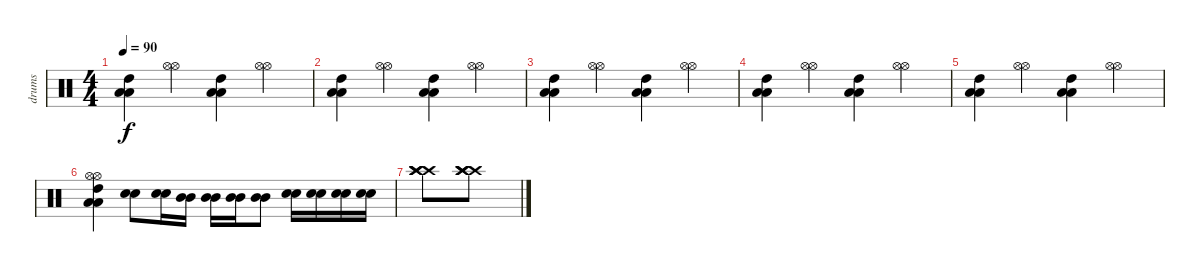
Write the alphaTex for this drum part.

\track ("drums" "drums") {instrument percussion}
\staff {score}
\articulation defaults
\ts (4 4)
\tempo 90
\clef neutral
\ks c
("High Tom (hit)" "Low Floor Tom (hit)" "Low Floor Tom (hit)").4{dy f} ("Hi-Hat (open)" "Hi-Hat (open)").4 ("High Tom (hit)" "Low Floor Tom (hit)" "Low Floor Tom (hit)").4 ("Hi-Hat (open)" "Hi-Hat (open)").4 |
("High Tom (hit)" "Low Floor Tom (hit)" "Low Floor Tom (hit)").4 ("Hi-Hat (open)" "Hi-Hat (open)").4 ("High Tom (hit)" "Low Floor Tom (hit)" "Low Floor Tom (hit)").4 ("Hi-Hat (open)" "Hi-Hat (open)").4 |
("High Tom (hit)" "Low Floor Tom (hit)" "Low Floor Tom (hit)").4 ("Hi-Hat (open)" "Hi-Hat (open)").4 ("High Tom (hit)" "Low Floor Tom (hit)" "Low Floor Tom (hit)").4 ("Hi-Hat (open)" "Hi-Hat (open)").4 |
("High Tom (hit)" "Low Floor Tom (hit)" "Low Floor Tom (hit)").4 ("Hi-Hat (open)" "Hi-Hat (open)").4 ("High Tom (hit)" "Low Floor Tom (hit)" "Low Floor Tom (hit)").4 ("Hi-Hat (open)" "Hi-Hat (open)").4 |
("High Tom (hit)" "Low Floor Tom (hit)" "Low Floor Tom (hit)").4 ("Hi-Hat (open)" "Hi-Hat (open)").4 ("High Tom (hit)" "Low Floor Tom (hit)" "Low Floor Tom (hit)").4 ("Hi-Hat (open)" "Hi-Hat (open)").4 |
("Hi-Hat (open)" "Hi-Hat (open)" "High Tom (hit)" "Low Floor Tom (hit)" "Low Floor Tom (hit)").4 ("Electric Snare (hit)" "Electric Snare (hit)").8 ("Electric Snare (hit)" "Electric Snare (hit)").16 ("Mid Tom (hit)" "Mid Tom (hit)").16 ("Mid Tom (hit)" "Mid Tom (hit)").16 ("Mid Tom (hit)" "Mid Tom (hit)").16 ("Mid Tom (hit)" "Mid Tom (hit)").8 ("Electric Snare (hit)" "Electric Snare (hit)").16 ("Electric Snare (hit)" "Electric Snare (hit)").16 ("Electric Snare (hit)" "Electric Snare (hit)").16 ("Electric Snare (hit)" "Electric Snare (hit)").16 |
("Crash high (hit)" "Crash high (hit)" "Crash high (hit)" "Crash high (hit)").8 ("Crash high (hit)" "Crash high (hit)" "Crash high (hit)" "Crash high (hit)").8
